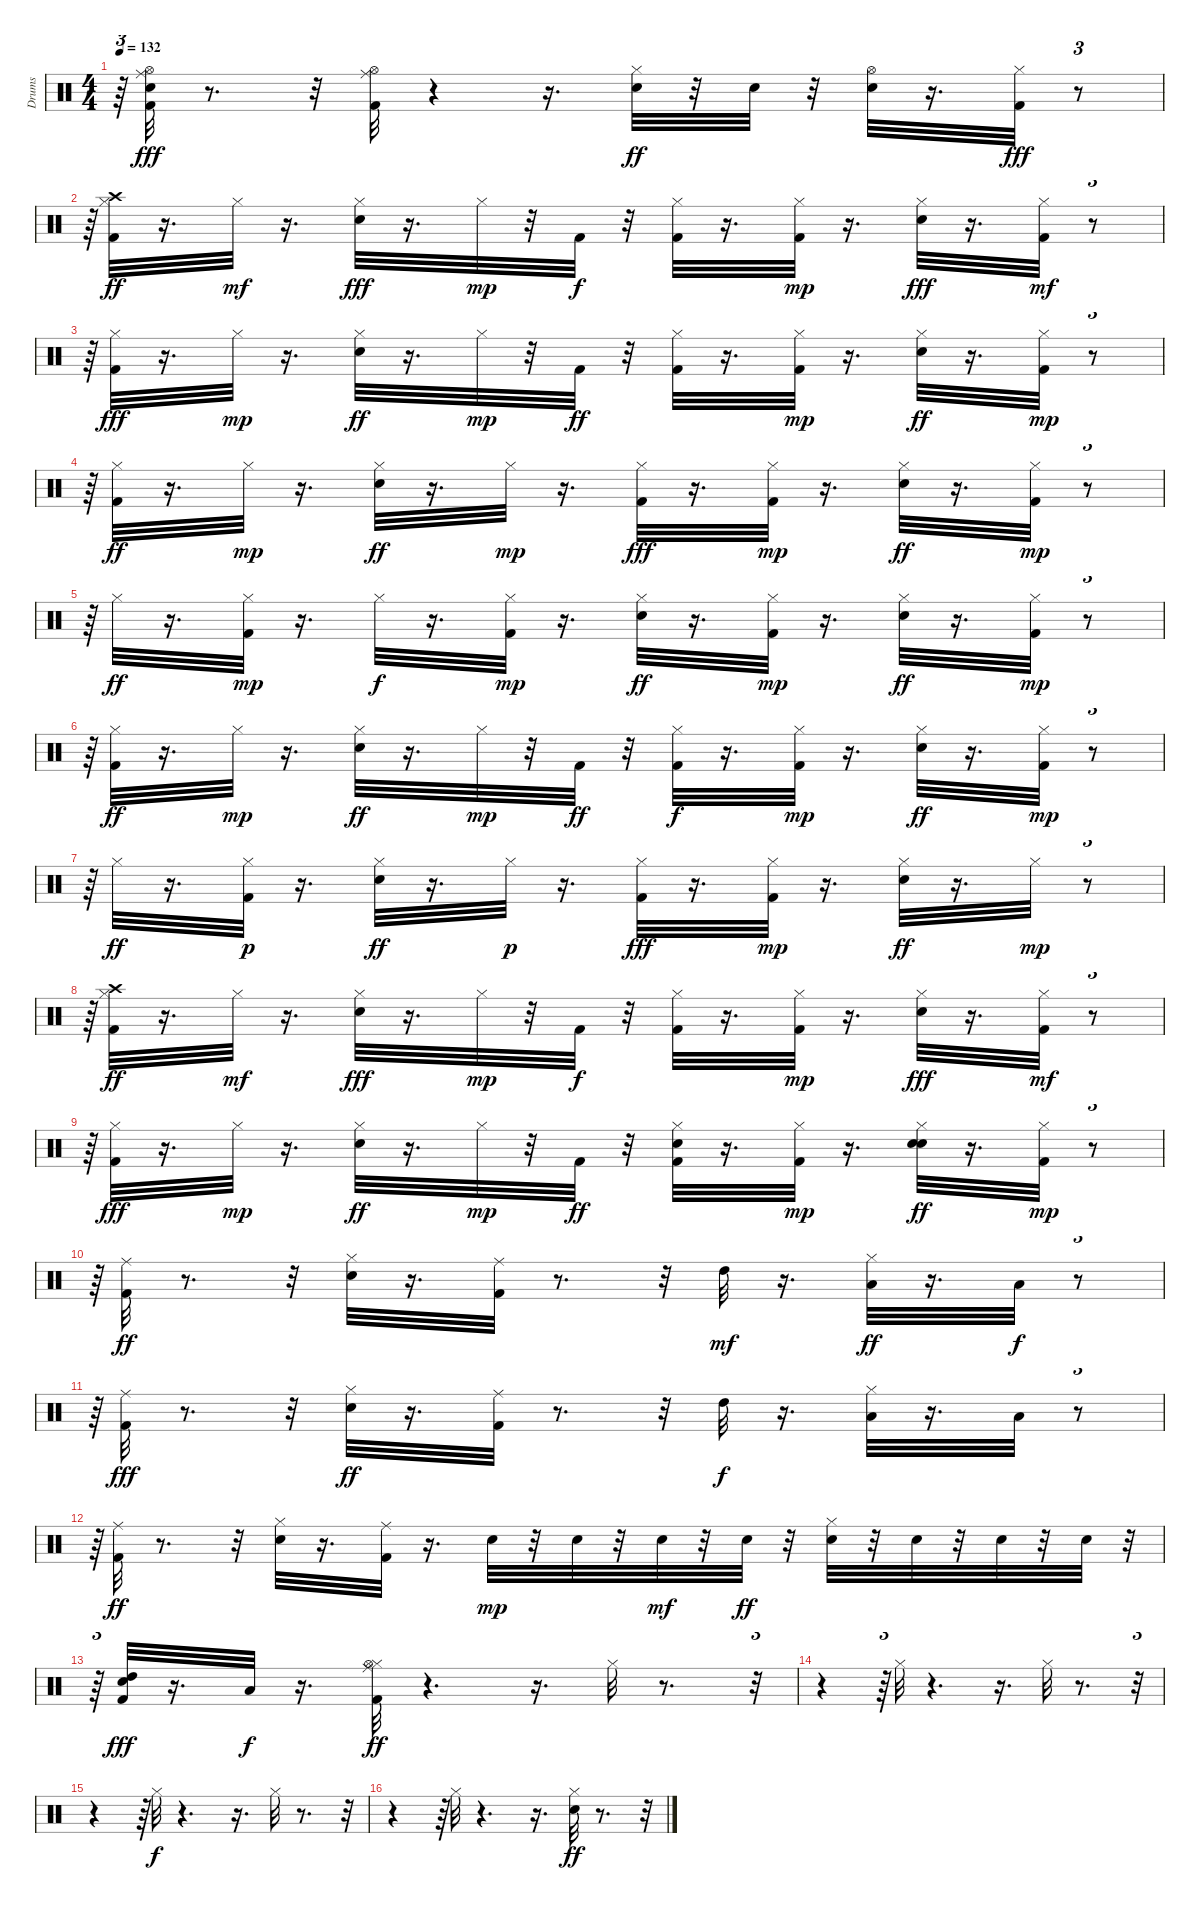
\track ("Drums" "Drums") {instrument percussion}
\staff {score}
\articulation defaults
\ts (4 4)
\tempo 132
\clef neutral
\ks c
r.64{tu (3 2) dy ff} ("Kick (hit) 2" "Snare (hit) 2" "Ride (middle)" "Hi-Hat (open)").32{dy fff} r.8{d} r.32 ("Kick (hit) 2" "Ride (middle)" "Hi-Hat (open)").32 r.4 r.16{d} ("Snare (hit) 2" "Hi-Hat (closed)").32{dy ff} r.32 "Snare (hit) 2".32 r.32 ("Snare (hit) 2" "Hi-Hat (open)").32 r.16{d} ("Kick (hit) 2" "Hi-Hat (closed)").32{dy fff} r.8{tu (3 2)} |
r.64{tu (3 2)} ("Kick (hit) 2" "Hi-Hat (closed)" "Crash high (hit)").32{dy ff} r.16{d} "Hi-Hat (closed)".32{dy mf} r.16{d} ("Snare (hit) 2" "Hi-Hat (closed)").32{dy fff} r.16{d} "Hi-Hat (closed)".32{dy mp} r.32 "Kick (hit) 2".32{dy f} r.32 ("Kick (hit) 2" "Hi-Hat (closed)").32 r.16{d} ("Kick (hit) 2" "Hi-Hat (closed)").32{dy mp} r.16{d} ("Snare (hit) 2" "Hi-Hat (closed)").32{dy fff} r.16{d} ("Kick (hit) 2" "Hi-Hat (closed)").32{dy mf} r.8{tu (3 2)} |
r.64{tu (3 2)} ("Kick (hit) 2" "Hi-Hat (closed)").32{dy fff} r.16{d} "Hi-Hat (closed)".32{dy mp} r.16{d} ("Snare (hit) 2" "Hi-Hat (closed)").32{dy ff} r.16{d} "Hi-Hat (closed)".32{dy mp} r.32 "Kick (hit) 2".32{dy ff} r.32 ("Kick (hit) 2" "Hi-Hat (closed)").32 r.16{d} ("Kick (hit) 2" "Hi-Hat (closed)").32{dy mp} r.16{d} ("Snare (hit) 2" "Hi-Hat (closed)").32{dy ff} r.16{d} ("Kick (hit) 2" "Hi-Hat (closed)").32{dy mp} r.8{tu (3 2)} |
r.64{tu (3 2)} ("Kick (hit) 2" "Hi-Hat (closed)").32{dy ff} r.16{d} "Hi-Hat (closed)".32{dy mp} r.16{d} ("Snare (hit) 2" "Hi-Hat (closed)").32{dy ff} r.16{d} "Hi-Hat (closed)".32{dy mp} r.16{d} ("Kick (hit) 2" "Hi-Hat (closed)").32{dy fff} r.16{d} ("Kick (hit) 2" "Hi-Hat (closed)").32{dy mp} r.16{d} ("Snare (hit) 2" "Hi-Hat (closed)").32{dy ff} r.16{d} ("Kick (hit) 2" "Hi-Hat (closed)").32{dy mp} r.8{tu (3 2)} |
r.64{tu (3 2)} "Hi-Hat (closed)".32{dy ff} r.16{d} ("Kick (hit) 2" "Hi-Hat (closed)").32{dy mp} r.16{d} "Hi-Hat (closed)".32{dy f} r.16{d} ("Kick (hit) 2" "Hi-Hat (closed)").32{dy mp} r.16{d} ("Snare (hit) 2" "Hi-Hat (closed)").32{dy ff} r.16{d} ("Kick (hit) 2" "Hi-Hat (closed)").32{dy mp} r.16{d} ("Snare (hit) 2" "Hi-Hat (closed)").32{dy ff} r.16{d} ("Kick (hit) 2" "Hi-Hat (closed)").32{dy mp} r.8{tu (3 2)} |
r.64{tu (3 2)} ("Kick (hit) 2" "Hi-Hat (closed)").32{dy ff} r.16{d} "Hi-Hat (closed)".32{dy mp} r.16{d} ("Snare (hit) 2" "Hi-Hat (closed)").32{dy ff} r.16{d} "Hi-Hat (closed)".32{dy mp} r.32 "Kick (hit) 2".32{dy ff} r.32 ("Kick (hit) 2" "Hi-Hat (closed)").32{dy f} r.16{d} ("Kick (hit) 2" "Hi-Hat (closed)").32{dy mp} r.16{d} ("Snare (hit) 2" "Hi-Hat (closed)").32{dy ff} r.16{d} ("Kick (hit) 2" "Hi-Hat (closed)").32{dy mp} r.8{tu (3 2)} |
r.64{tu (3 2)} "Hi-Hat (closed)".32{dy ff} r.16{d} ("Kick (hit) 2" "Hi-Hat (closed)").32{dy p} r.16{d} ("Snare (hit) 2" "Hi-Hat (closed)").32{dy ff} r.16{d} "Hi-Hat (closed)".32{dy p} r.16{d} ("Kick (hit) 2" "Hi-Hat (closed)").32{dy fff} r.16{d} ("Kick (hit) 2" "Hi-Hat (closed)").32{dy mp} r.16{d} ("Snare (hit) 2" "Hi-Hat (closed)").32{dy ff} r.16{d} "Hi-Hat (closed)".32{dy mp} r.8{tu (3 2)} |
r.64{tu (3 2)} ("Kick (hit) 2" "Hi-Hat (closed)" "Crash high (hit)").32{dy ff} r.16{d} "Hi-Hat (closed)".32{dy mf} r.16{d} ("Snare (hit) 2" "Hi-Hat (closed)").32{dy fff} r.16{d} "Hi-Hat (closed)".32{dy mp} r.32 "Kick (hit) 2".32{dy f} r.32 ("Kick (hit) 2" "Hi-Hat (closed)").32 r.16{d} ("Kick (hit) 2" "Hi-Hat (closed)").32{dy mp} r.16{d} ("Snare (hit) 2" "Hi-Hat (closed)").32{dy fff} r.16{d} ("Kick (hit) 2" "Hi-Hat (closed)").32{dy mf} r.8{tu (3 2)} |
r.64{tu (3 2)} ("Kick (hit) 2" "Hi-Hat (closed)").32{dy fff} r.16{d} "Hi-Hat (closed)".32{dy mp} r.16{d} ("Snare (hit) 2" "Hi-Hat (closed)").32{dy ff} r.16{d} "Hi-Hat (closed)".32{dy mp} r.32 "Kick (hit) 2".32{dy ff} r.32 ("Kick (hit) 2" "Snare (hit) 2" "Hi-Hat (closed)").32 r.16{d} ("Kick (hit) 2" "Hi-Hat (closed)").32{dy mp} r.16{d} ("Snare (hit) 2" "Snare (hit) 2" "Hi-Hat (closed)").32{dy ff} r.16{d} ("Kick (hit) 2" "Hi-Hat (closed)").32{dy mp} r.8{tu (3 2)} |
r.64{tu (3 2)} ("Kick (hit) 2" "Ride (middle)").32{dy ff} r.8{d} r.32 ("Snare (hit) 2" "Hi-Hat (closed)").32 r.16{d} ("Kick (hit) 2" "Ride (middle)").32 r.8{d} r.32 "High Tom (hit)".32{dy mf} r.16{d} ("Hi-Hat (closed)" "Low Tom (hit)").32{dy ff} r.16{d} "Low Floor Tom (hit)".32{dy f} r.8{tu (3 2)} |
r.64{tu (3 2)} ("Kick (hit) 2" "Ride (middle)").32{dy fff} r.8{d} r.32 ("Snare (hit) 2" "Hi-Hat (closed)").32{dy ff} r.16{d} ("Kick (hit) 2" "Ride (middle)").32 r.8{d} r.32 "High Tom (hit)".32{dy f} r.16{d} ("Hi-Hat (closed)" "Low Tom (hit)").32 r.16{d} "Low Floor Tom (hit)".32 r.8{tu (3 2)} |
r.64{tu (3 2)} ("Kick (hit) 2" "Ride (middle)").32{dy ff} r.8{d} r.32 ("Snare (hit) 2" "Hi-Hat (closed)").32 r.16{d} ("Kick (hit) 2" "Ride (middle)").32 r.16{d} "Snare (hit) 2".32{dy mp} r.32 "Snare (hit) 2".32 r.32 "Snare (hit) 2".32{dy mf} r.32 "Snare (hit) 2".32{dy ff} r.32 ("Snare (hit) 2" "Hi-Hat (closed)").32 r.32 "Snare (hit) 2".32 r.32 "Snare (hit) 2".32 r.32 "Snare (hit) 2".32 r.32{tu (3 2)} |
r.64{tu (3 2)} ("Kick (hit) 2" "Snare (hit) 2" "High Tom (hit)").32{dy fff} r.16{d} "Low Floor Tom (hit)".32{dy f} r.16{d} ("Kick (hit) 2" "Hi-Hat (closed)" "Ride (middle)" "Hi-Hat (open)").32{dy ff} r.4{d} r.16{d} "Hi-Hat (closed)".32 r.8{d} r.32{tu (3 2)} |
r.4 r.64{tu (3 2)} "Hi-Hat (closed)".32 r.4{d} r.16{d} "Hi-Hat (closed)".32 r.8{d} r.32{tu (3 2)} |
r.4 r.64{tu (3 2)} "Hi-Hat (closed)".32{dy f} r.4{d} r.16{d} "Hi-Hat (closed)".32 r.8{d} r.32{tu (3 2)} |
r.4 r.64{tu (3 2)} "Hi-Hat (closed)".32 r.4{d} r.16{d} ("Snare (hit) 2" "Hi-Hat (closed)").32{dy ff} r.8{d} r.32{tu (3 2)}
